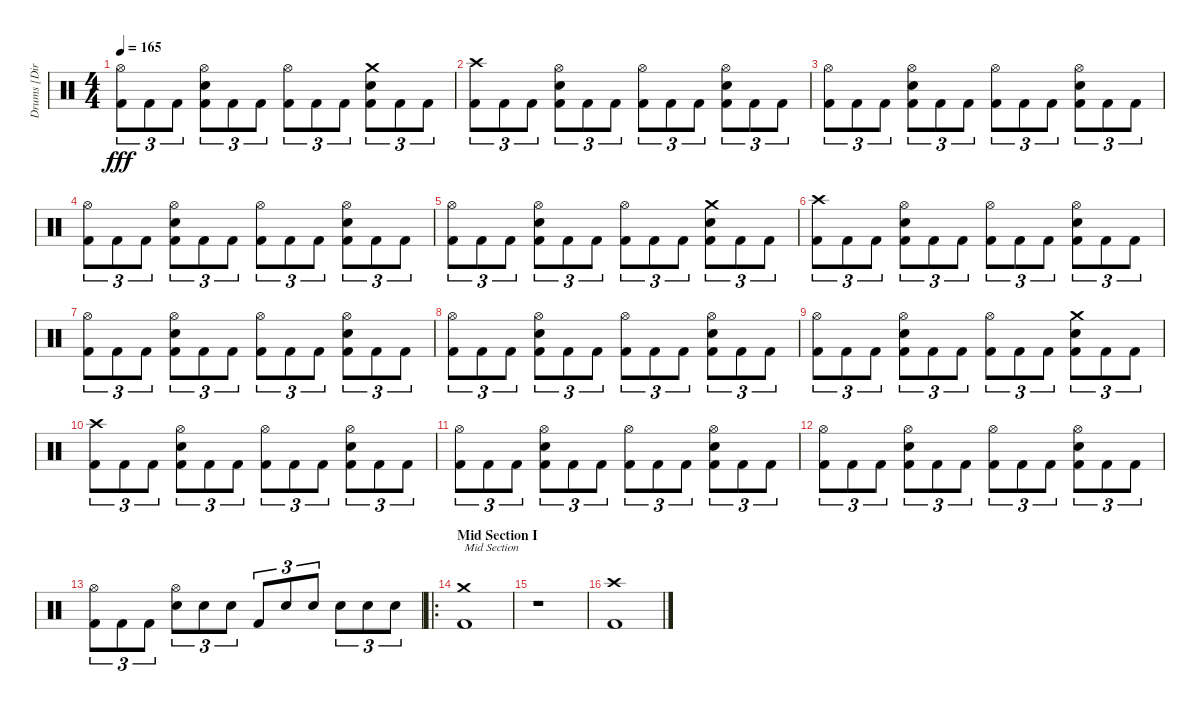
\track ("Drums [Dirge Rep]" "Drums [Dir") {instrument percussion}
\staff {score}
\articulation defaults
\ts (4 4)
\tempo 165
\clef neutral
\ks c
("Hi-Hat (open)" "Kick (hit) 2").8{tu (3 2) dy fff} "Kick (hit) 2".8{tu (3 2)} "Kick (hit) 2".8{tu (3 2)} ("Hi-Hat (open)" "Electric Snare (hit)" "Kick (hit) 2").8{tu (3 2)} "Kick (hit) 2".8{tu (3 2)} "Kick (hit) 2".8{tu (3 2)} ("Hi-Hat (open)" "Kick (hit) 2").8{tu (3 2)} "Kick (hit) 2".8{tu (3 2)} "Kick (hit) 2".8{tu (3 2)} ("Crash medium (hit)" "Electric Snare (hit)" "Kick (hit) 2").8{tu (3 2)} "Kick (hit) 2".8{tu (3 2)} "Kick (hit) 2".8{tu (3 2)} |
("Crash high (hit)" "Kick (hit) 2").8{tu (3 2)} "Kick (hit) 2".8{tu (3 2)} "Kick (hit) 2".8{tu (3 2)} ("Hi-Hat (open)" "Electric Snare (hit)" "Kick (hit) 2").8{tu (3 2)} "Kick (hit) 2".8{tu (3 2)} "Kick (hit) 2".8{tu (3 2)} ("Hi-Hat (open)" "Kick (hit) 2").8{tu (3 2)} "Kick (hit) 2".8{tu (3 2)} "Kick (hit) 2".8{tu (3 2)} ("Hi-Hat (open)" "Electric Snare (hit)" "Kick (hit) 2").8{tu (3 2)} "Kick (hit) 2".8{tu (3 2)} "Kick (hit) 2".8{tu (3 2)} |
("Hi-Hat (open)" "Kick (hit) 2").8{tu (3 2)} "Kick (hit) 2".8{tu (3 2)} "Kick (hit) 2".8{tu (3 2)} ("Hi-Hat (open)" "Electric Snare (hit)" "Kick (hit) 2").8{tu (3 2)} "Kick (hit) 2".8{tu (3 2)} "Kick (hit) 2".8{tu (3 2)} ("Hi-Hat (open)" "Kick (hit) 2").8{tu (3 2)} "Kick (hit) 2".8{tu (3 2)} "Kick (hit) 2".8{tu (3 2)} ("Hi-Hat (open)" "Electric Snare (hit)" "Kick (hit) 2").8{tu (3 2)} "Kick (hit) 2".8{tu (3 2)} "Kick (hit) 2".8{tu (3 2)} |
("Hi-Hat (open)" "Kick (hit) 2").8{tu (3 2)} "Kick (hit) 2".8{tu (3 2)} "Kick (hit) 2".8{tu (3 2)} ("Hi-Hat (open)" "Electric Snare (hit)" "Kick (hit) 2").8{tu (3 2)} "Kick (hit) 2".8{tu (3 2)} "Kick (hit) 2".8{tu (3 2)} ("Hi-Hat (open)" "Kick (hit) 2").8{tu (3 2)} "Kick (hit) 2".8{tu (3 2)} "Kick (hit) 2".8{tu (3 2)} ("Hi-Hat (open)" "Electric Snare (hit)" "Kick (hit) 2").8{tu (3 2)} "Kick (hit) 2".8{tu (3 2)} "Kick (hit) 2".8{tu (3 2)} |
("Hi-Hat (open)" "Kick (hit) 2").8{tu (3 2)} "Kick (hit) 2".8{tu (3 2)} "Kick (hit) 2".8{tu (3 2)} ("Hi-Hat (open)" "Electric Snare (hit)" "Kick (hit) 2").8{tu (3 2)} "Kick (hit) 2".8{tu (3 2)} "Kick (hit) 2".8{tu (3 2)} ("Hi-Hat (open)" "Kick (hit) 2").8{tu (3 2)} "Kick (hit) 2".8{tu (3 2)} "Kick (hit) 2".8{tu (3 2)} ("Crash medium (hit)" "Electric Snare (hit)" "Kick (hit) 2").8{tu (3 2)} "Kick (hit) 2".8{tu (3 2)} "Kick (hit) 2".8{tu (3 2)} |
("Crash high (hit)" "Kick (hit) 2").8{tu (3 2)} "Kick (hit) 2".8{tu (3 2)} "Kick (hit) 2".8{tu (3 2)} ("Hi-Hat (open)" "Electric Snare (hit)" "Kick (hit) 2").8{tu (3 2)} "Kick (hit) 2".8{tu (3 2)} "Kick (hit) 2".8{tu (3 2)} ("Hi-Hat (open)" "Kick (hit) 2").8{tu (3 2)} "Kick (hit) 2".8{tu (3 2)} "Kick (hit) 2".8{tu (3 2)} ("Hi-Hat (open)" "Electric Snare (hit)" "Kick (hit) 2").8{tu (3 2)} "Kick (hit) 2".8{tu (3 2)} "Kick (hit) 2".8{tu (3 2)} |
("Hi-Hat (open)" "Kick (hit) 2").8{tu (3 2)} "Kick (hit) 2".8{tu (3 2)} "Kick (hit) 2".8{tu (3 2)} ("Hi-Hat (open)" "Electric Snare (hit)" "Kick (hit) 2").8{tu (3 2)} "Kick (hit) 2".8{tu (3 2)} "Kick (hit) 2".8{tu (3 2)} ("Hi-Hat (open)" "Kick (hit) 2").8{tu (3 2)} "Kick (hit) 2".8{tu (3 2)} "Kick (hit) 2".8{tu (3 2)} ("Hi-Hat (open)" "Electric Snare (hit)" "Kick (hit) 2").8{tu (3 2)} "Kick (hit) 2".8{tu (3 2)} "Kick (hit) 2".8{tu (3 2)} |
("Hi-Hat (open)" "Kick (hit) 2").8{tu (3 2)} "Kick (hit) 2".8{tu (3 2)} "Kick (hit) 2".8{tu (3 2)} ("Hi-Hat (open)" "Electric Snare (hit)" "Kick (hit) 2").8{tu (3 2)} "Kick (hit) 2".8{tu (3 2)} "Kick (hit) 2".8{tu (3 2)} ("Hi-Hat (open)" "Kick (hit) 2").8{tu (3 2)} "Kick (hit) 2".8{tu (3 2)} "Kick (hit) 2".8{tu (3 2)} ("Hi-Hat (open)" "Electric Snare (hit)" "Kick (hit) 2").8{tu (3 2)} "Kick (hit) 2".8{tu (3 2)} "Kick (hit) 2".8{tu (3 2)} |
("Hi-Hat (open)" "Kick (hit) 2").8{tu (3 2)} "Kick (hit) 2".8{tu (3 2)} "Kick (hit) 2".8{tu (3 2)} ("Hi-Hat (open)" "Electric Snare (hit)" "Kick (hit) 2").8{tu (3 2)} "Kick (hit) 2".8{tu (3 2)} "Kick (hit) 2".8{tu (3 2)} ("Hi-Hat (open)" "Kick (hit) 2").8{tu (3 2)} "Kick (hit) 2".8{tu (3 2)} "Kick (hit) 2".8{tu (3 2)} ("Crash medium (hit)" "Electric Snare (hit)" "Kick (hit) 2").8{tu (3 2)} "Kick (hit) 2".8{tu (3 2)} "Kick (hit) 2".8{tu (3 2)} |
("Crash high (hit)" "Kick (hit) 2").8{tu (3 2)} "Kick (hit) 2".8{tu (3 2)} "Kick (hit) 2".8{tu (3 2)} ("Hi-Hat (open)" "Electric Snare (hit)" "Kick (hit) 2").8{tu (3 2)} "Kick (hit) 2".8{tu (3 2)} "Kick (hit) 2".8{tu (3 2)} ("Hi-Hat (open)" "Kick (hit) 2").8{tu (3 2)} "Kick (hit) 2".8{tu (3 2)} "Kick (hit) 2".8{tu (3 2)} ("Hi-Hat (open)" "Electric Snare (hit)" "Kick (hit) 2").8{tu (3 2)} "Kick (hit) 2".8{tu (3 2)} "Kick (hit) 2".8{tu (3 2)} |
("Hi-Hat (open)" "Kick (hit) 2").8{tu (3 2)} "Kick (hit) 2".8{tu (3 2)} "Kick (hit) 2".8{tu (3 2)} ("Hi-Hat (open)" "Electric Snare (hit)" "Kick (hit) 2").8{tu (3 2)} "Kick (hit) 2".8{tu (3 2)} "Kick (hit) 2".8{tu (3 2)} ("Hi-Hat (open)" "Kick (hit) 2").8{tu (3 2)} "Kick (hit) 2".8{tu (3 2)} "Kick (hit) 2".8{tu (3 2)} ("Hi-Hat (open)" "Electric Snare (hit)" "Kick (hit) 2").8{tu (3 2)} "Kick (hit) 2".8{tu (3 2)} "Kick (hit) 2".8{tu (3 2)} |
("Hi-Hat (open)" "Kick (hit) 2").8{tu (3 2)} "Kick (hit) 2".8{tu (3 2)} "Kick (hit) 2".8{tu (3 2)} ("Hi-Hat (open)" "Electric Snare (hit)" "Kick (hit) 2").8{tu (3 2)} "Kick (hit) 2".8{tu (3 2)} "Kick (hit) 2".8{tu (3 2)} ("Hi-Hat (open)" "Kick (hit) 2").8{tu (3 2)} "Kick (hit) 2".8{tu (3 2)} "Kick (hit) 2".8{tu (3 2)} ("Hi-Hat (open)" "Electric Snare (hit)" "Kick (hit) 2").8{tu (3 2)} "Kick (hit) 2".8{tu (3 2)} "Kick (hit) 2".8{tu (3 2)} |
("Hi-Hat (open)" "Kick (hit) 2").8{tu (3 2)} "Kick (hit) 2".8{tu (3 2)} "Kick (hit) 2".8{tu (3 2)} ("Hi-Hat (open)" "Electric Snare (hit)").8{tu (3 2)} "Electric Snare (hit)".8{tu (3 2)} "Electric Snare (hit)".8{tu (3 2)} "Kick (hit) 2".8{tu (3 2)} "Electric Snare (hit)".8{tu (3 2)} "Electric Snare (hit)".8{tu (3 2)} "Electric Snare (hit)".8{tu (3 2)} "Electric Snare (hit)".8{tu (3 2)} "Electric Snare (hit)".8{tu (3 2)} |
\ro
\section ("" "Mid Section I")
("Crash medium (hit)" "Kick (hit) 2").1{txt "Mid Section"} |
r.1 |
("Crash high (hit)" "Kick (hit) 2").1
